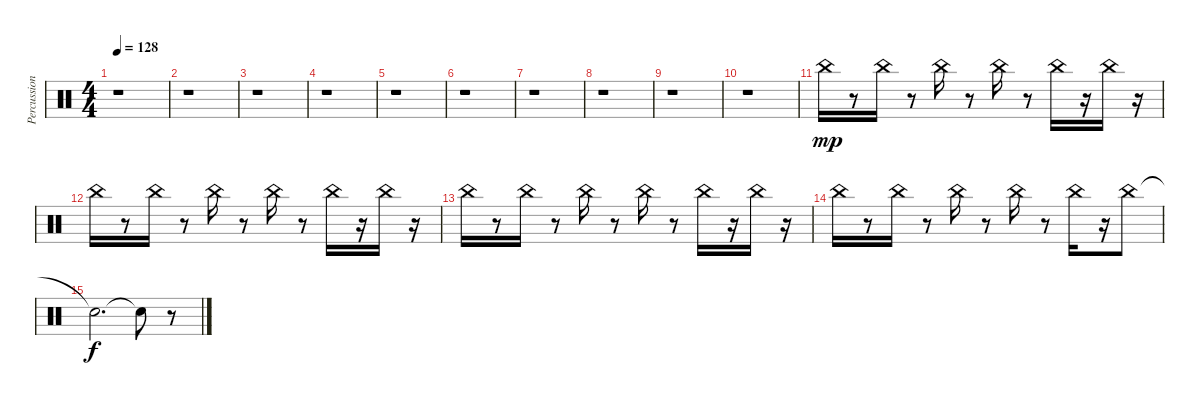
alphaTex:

\track ("Percussion 'Sin'" "Percussion") {instrument percussion}
\staff {score}
\articulation defaults
\ts (4 4)
\tempo 128
\clef neutral
\ks c
r.1{dy mp} |
r.1 |
r.1 |
r.1 |
r.1 |
r.1 |
r.1 |
r.1 |
r.1 |
r.1 |
"China (hit)".16 r.8 "China (hit)".16 r.8 "China (hit)".16 r.8 "China (hit)".16 r.8 "China (hit)".16 r.16 "China (hit)".16 r.16 |
"China (hit)".16 r.8 "China (hit)".16 r.8 "China (hit)".16 r.8 "China (hit)".16 r.8 "China (hit)".16 r.16 "China (hit)".16 r.16 |
"China (hit)".16 r.8 "China (hit)".16 r.8 "China (hit)".16 r.8 "China (hit)".16 r.8 "China (hit)".16 r.16 "China (hit)".16 r.16 |
"China (hit)".16 r.8 "China (hit)".16 r.8 "China (hit)".16 r.8 "China (hit)".16 r.8 "China (hit)".16 r.16 "China (hit)".8 |
"Snare (hit)"{t}.2{d dy f} "Snare (hit)"{t}.8 r.8
